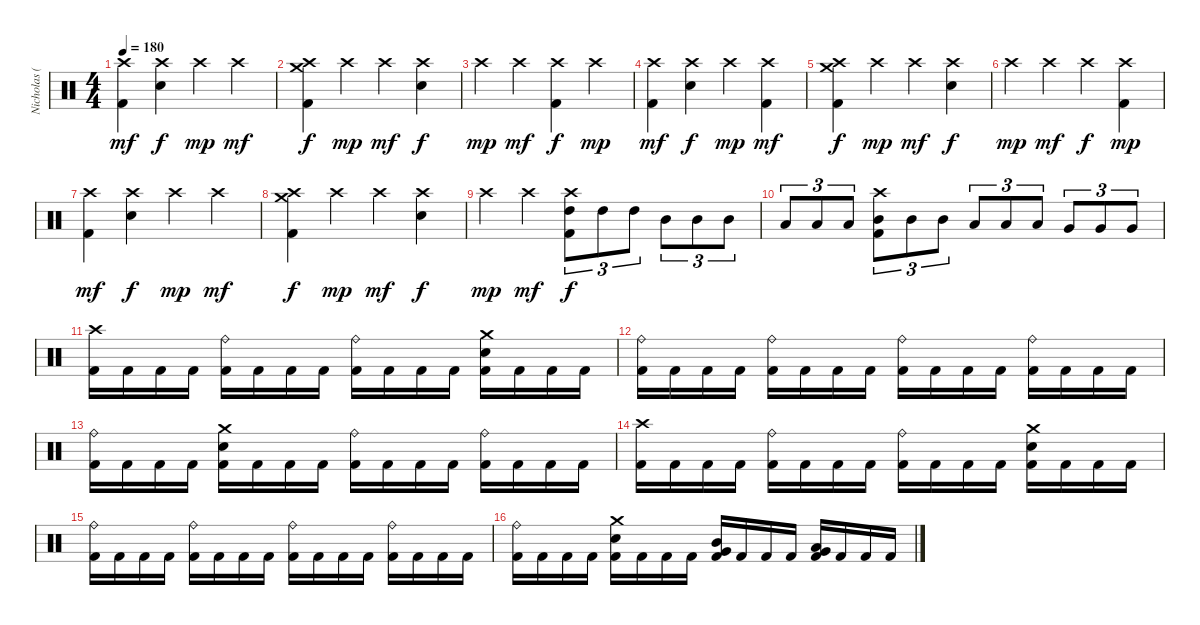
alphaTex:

\track ("Nicholas (Drums)" "Nicholas (") {instrument percussion}
\staff {score}
\articulation defaults
\ts (4 4)
\tempo 180
\clef neutral
\ks c
("Crash high (hit)" "Kick (hit) 2").4{dy mf} ("Crash high (hit)" "Electric Snare (hit)").4{dy f} "Crash high (hit)".4{dy mp} "Crash high (hit)".4{dy mf} |
("Crash medium (hit)" "Crash high (hit)" "Kick (hit) 2").4{dy f} "Crash high (hit)".4{dy mp} "Crash high (hit)".4{dy mf} ("Crash high (hit)" "Electric Snare (hit)").4{dy f} |
"Crash high (hit)".4{dy mp} "Crash high (hit)".4{dy mf} ("Crash high (hit)" "Kick (hit) 2").4{dy f} "Crash high (hit)".4{dy mp} |
("Crash high (hit)" "Kick (hit) 2").4{dy mf} ("Crash high (hit)" "Electric Snare (hit)").4{dy f} "Crash high (hit)".4{dy mp} ("Crash high (hit)" "Kick (hit) 2").4{dy mf} |
("Crash medium (hit)" "Crash high (hit)" "Kick (hit) 2").4{dy f} "Crash high (hit)".4{dy mp} "Crash high (hit)".4{dy mf} ("Crash high (hit)" "Electric Snare (hit)").4{dy f} |
"Crash high (hit)".4{dy mp} "Crash high (hit)".4{dy mf} "Crash high (hit)".4{dy f} ("Crash high (hit)" "Kick (hit) 2").4{dy mp} |
("Crash high (hit)" "Kick (hit) 2").4{dy mf} ("Crash high (hit)" "Electric Snare (hit)").4{dy f} "Crash high (hit)".4{dy mp} "Crash high (hit)".4{dy mf} |
("Crash medium (hit)" "Crash high (hit)" "Kick (hit) 2").4{dy f} "Crash high (hit)".4{dy mp} "Crash high (hit)".4{dy mf} ("Crash high (hit)" "Electric Snare (hit)").4{dy f} |
"Crash high (hit)".4{dy mp} "Crash high (hit)".4{dy mf} ("Crash high (hit)" "High Tom (hit)" "Kick (hit) 2").8{tu (3 2) dy f} "High Tom (hit)".8{tu (3 2)} "High Tom (hit)".8{tu (3 2)} "Mid Tom (hit)".8{tu (3 2)} "Mid Tom (hit)".8{tu (3 2)} "Mid Tom (hit)".8{tu (3 2)} |
"Low Tom (hit)".8{tu (3 2)} "Low Tom (hit)".8{tu (3 2)} "Low Tom (hit)".8{tu (3 2)} ("Crash high (hit)" "Mid Tom (hit)" "Kick (hit) 2").8{tu (3 2)} "Mid Tom (hit)".8{tu (3 2)} "Mid Tom (hit)".8{tu (3 2)} "Low Tom (hit)".8{tu (3 2)} "Low Tom (hit)".8{tu (3 2)} "Low Tom (hit)".8{tu (3 2)} "Very Low Tom (hit)".8{tu (3 2)} "Very Low Tom (hit)".8{tu (3 2)} "Very Low Tom (hit)".8{tu (3 2)} |
("Crash high (hit)" "Kick (hit) 2").16 "Kick (hit) 2".16 "Kick (hit) 2".16 "Kick (hit) 2".16 ("Ride (bell)" "Kick (hit) 2").16 "Kick (hit) 2".16 "Kick (hit) 2".16 "Kick (hit) 2".16 ("Ride (bell)" "Kick (hit) 2").16 "Kick (hit) 2".16 "Kick (hit) 2".16 "Kick (hit) 2".16 ("Crash medium (hit)" "Electric Snare (hit)" "Kick (hit) 2").16 "Kick (hit) 2".16 "Kick (hit) 2".16 "Kick (hit) 2".16 |
("Ride (bell)" "Kick (hit) 2").16 "Kick (hit) 2".16 "Kick (hit) 2".16 "Kick (hit) 2".16 ("Ride (bell)" "Kick (hit) 2").16 "Kick (hit) 2".16 "Kick (hit) 2".16 "Kick (hit) 2".16 ("Ride (bell)" "Kick (hit) 2").16 "Kick (hit) 2".16 "Kick (hit) 2".16 "Kick (hit) 2".16 ("Ride (bell)" "Kick (hit) 2").16 "Kick (hit) 2".16 "Kick (hit) 2".16 "Kick (hit) 2".16 |
("Ride (bell)" "Kick (hit) 2").16 "Kick (hit) 2".16 "Kick (hit) 2".16 "Kick (hit) 2".16 ("Crash medium (hit)" "Electric Snare (hit)" "Kick (hit) 2").16 "Kick (hit) 2".16 "Kick (hit) 2".16 "Kick (hit) 2".16 ("Ride (bell)" "Kick (hit) 2").16 "Kick (hit) 2".16 "Kick (hit) 2".16 "Kick (hit) 2".16 ("Ride (bell)" "Kick (hit) 2").16 "Kick (hit) 2".16 "Kick (hit) 2".16 "Kick (hit) 2".16 |
("Crash high (hit)" "Kick (hit) 2").16 "Kick (hit) 2".16 "Kick (hit) 2".16 "Kick (hit) 2".16 ("Ride (bell)" "Kick (hit) 2").16 "Kick (hit) 2".16 "Kick (hit) 2".16 "Kick (hit) 2".16 ("Ride (bell)" "Kick (hit) 2").16 "Kick (hit) 2".16 "Kick (hit) 2".16 "Kick (hit) 2".16 ("Crash medium (hit)" "Electric Snare (hit)" "Kick (hit) 2").16 "Kick (hit) 2".16 "Kick (hit) 2".16 "Kick (hit) 2".16 |
("Ride (bell)" "Kick (hit) 2").16 "Kick (hit) 2".16 "Kick (hit) 2".16 "Kick (hit) 2".16 ("Ride (bell)" "Kick (hit) 2").16 "Kick (hit) 2".16 "Kick (hit) 2".16 "Kick (hit) 2".16 ("Ride (bell)" "Kick (hit) 2").16 "Kick (hit) 2".16 "Kick (hit) 2".16 "Kick (hit) 2".16 ("Ride (bell)" "Kick (hit) 2").16 "Kick (hit) 2".16 "Kick (hit) 2".16 "Kick (hit) 2".16 |
("Ride (bell)" "Kick (hit) 2").16 "Kick (hit) 2".16 "Kick (hit) 2".16 "Kick (hit) 2".16 ("Crash medium (hit)" "Electric Snare (hit)" "Kick (hit) 2").16 "Kick (hit) 2".16 "Kick (hit) 2".16 "Kick (hit) 2".16 ("Mid Tom (hit)" "Very Low Tom (hit)" "Kick (hit) 2").16 "Kick (hit) 2".16 "Kick (hit) 2".16 "Kick (hit) 2".16 ("Low Tom (hit)" "Very Low Tom (hit)" "Kick (hit) 2").16 "Kick (hit) 2".16 "Kick (hit) 2".16 "Kick (hit) 2".16
